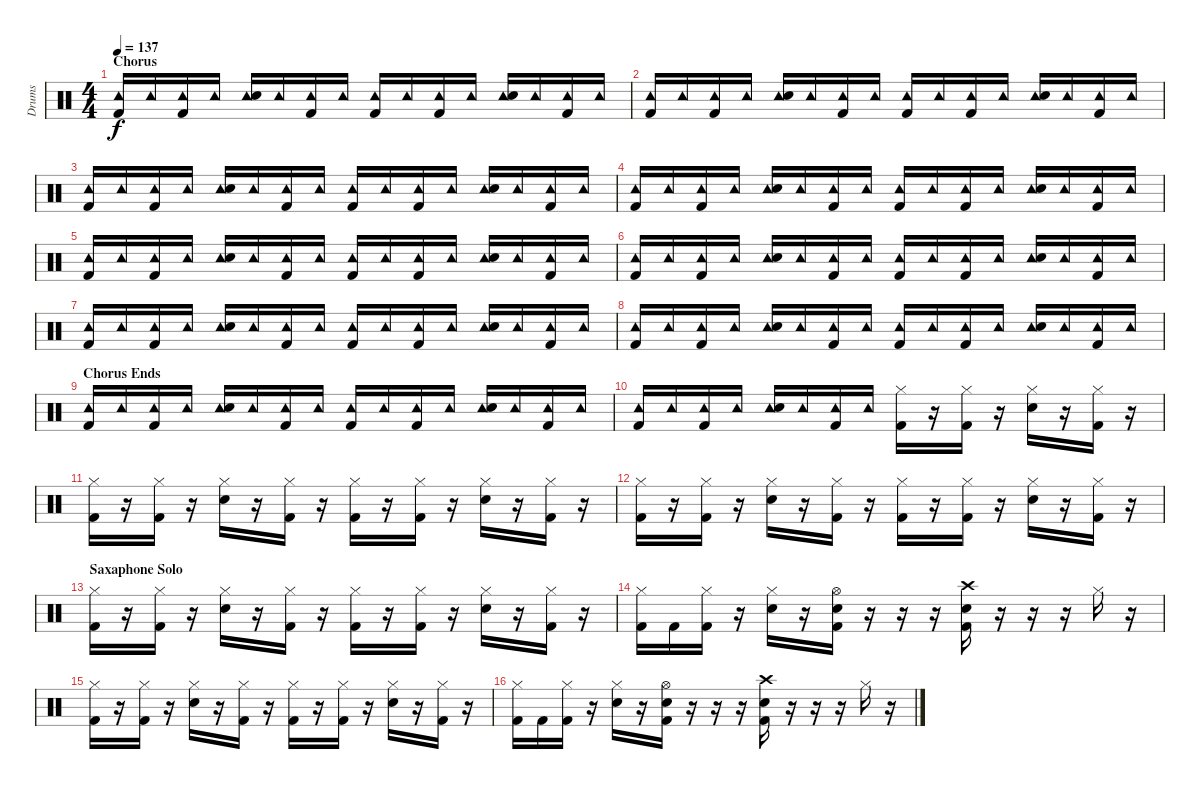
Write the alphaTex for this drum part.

\track ("Drums" "Drums") {instrument percussion}
\staff {score}
\articulation defaults
\ts (4 4)
\section ("" "Chorus")
\tempo 137
\clef neutral
\ks c
("Tambourine (hit)" "Kick (hit) 2").16{dy f} "Tambourine (hit)".16 ("Tambourine (hit)" "Kick (hit) 2").16 "Tambourine (hit)".16 ("Tambourine (hit)" "Electric Snare (hit)").16 "Tambourine (hit)".16 ("Tambourine (hit)" "Kick (hit) 2").16 "Tambourine (hit)".16 ("Tambourine (hit)" "Kick (hit) 2").16 "Tambourine (hit)".16 ("Tambourine (hit)" "Kick (hit) 2").16 "Tambourine (hit)".16 ("Tambourine (hit)" "Electric Snare (hit)").16 "Tambourine (hit)".16 ("Tambourine (hit)" "Kick (hit) 2").16 "Tambourine (hit)".16 |
("Tambourine (hit)" "Kick (hit) 2").16 "Tambourine (hit)".16 ("Tambourine (hit)" "Kick (hit) 2").16 "Tambourine (hit)".16 ("Tambourine (hit)" "Electric Snare (hit)").16 "Tambourine (hit)".16 ("Tambourine (hit)" "Kick (hit) 2").16 "Tambourine (hit)".16 ("Tambourine (hit)" "Kick (hit) 2").16 "Tambourine (hit)".16 ("Tambourine (hit)" "Kick (hit) 2").16 "Tambourine (hit)".16 ("Tambourine (hit)" "Electric Snare (hit)").16 "Tambourine (hit)".16 ("Tambourine (hit)" "Kick (hit) 2").16 "Tambourine (hit)".16 |
("Tambourine (hit)" "Kick (hit) 2").16 "Tambourine (hit)".16 ("Tambourine (hit)" "Kick (hit) 2").16 "Tambourine (hit)".16 ("Tambourine (hit)" "Electric Snare (hit)").16 "Tambourine (hit)".16 ("Tambourine (hit)" "Kick (hit) 2").16 "Tambourine (hit)".16 ("Tambourine (hit)" "Kick (hit) 2").16 "Tambourine (hit)".16 ("Tambourine (hit)" "Kick (hit) 2").16 "Tambourine (hit)".16 ("Tambourine (hit)" "Electric Snare (hit)").16 "Tambourine (hit)".16 ("Tambourine (hit)" "Kick (hit) 2").16 "Tambourine (hit)".16 |
("Tambourine (hit)" "Kick (hit) 2").16 "Tambourine (hit)".16 ("Tambourine (hit)" "Kick (hit) 2").16 "Tambourine (hit)".16 ("Tambourine (hit)" "Electric Snare (hit)").16 "Tambourine (hit)".16 ("Tambourine (hit)" "Kick (hit) 2").16 "Tambourine (hit)".16 ("Tambourine (hit)" "Kick (hit) 2").16 "Tambourine (hit)".16 ("Tambourine (hit)" "Kick (hit) 2").16 "Tambourine (hit)".16 ("Tambourine (hit)" "Electric Snare (hit)").16 "Tambourine (hit)".16 ("Tambourine (hit)" "Kick (hit) 2").16 "Tambourine (hit)".16 |
("Tambourine (hit)" "Kick (hit) 2").16 "Tambourine (hit)".16 ("Tambourine (hit)" "Kick (hit) 2").16 "Tambourine (hit)".16 ("Tambourine (hit)" "Electric Snare (hit)").16 "Tambourine (hit)".16 ("Tambourine (hit)" "Kick (hit) 2").16 "Tambourine (hit)".16 ("Tambourine (hit)" "Kick (hit) 2").16 "Tambourine (hit)".16 ("Tambourine (hit)" "Kick (hit) 2").16 "Tambourine (hit)".16 ("Tambourine (hit)" "Electric Snare (hit)").16 "Tambourine (hit)".16 ("Tambourine (hit)" "Kick (hit) 2").16 "Tambourine (hit)".16 |
("Tambourine (hit)" "Kick (hit) 2").16 "Tambourine (hit)".16 ("Tambourine (hit)" "Kick (hit) 2").16 "Tambourine (hit)".16 ("Tambourine (hit)" "Electric Snare (hit)").16 "Tambourine (hit)".16 ("Tambourine (hit)" "Kick (hit) 2").16 "Tambourine (hit)".16 ("Tambourine (hit)" "Kick (hit) 2").16 "Tambourine (hit)".16 ("Tambourine (hit)" "Kick (hit) 2").16 "Tambourine (hit)".16 ("Tambourine (hit)" "Electric Snare (hit)").16 "Tambourine (hit)".16 ("Tambourine (hit)" "Kick (hit) 2").16 "Tambourine (hit)".16 |
("Tambourine (hit)" "Kick (hit) 2").16 "Tambourine (hit)".16 ("Tambourine (hit)" "Kick (hit) 2").16 "Tambourine (hit)".16 ("Tambourine (hit)" "Electric Snare (hit)").16 "Tambourine (hit)".16 ("Tambourine (hit)" "Kick (hit) 2").16 "Tambourine (hit)".16 ("Tambourine (hit)" "Kick (hit) 2").16 "Tambourine (hit)".16 ("Tambourine (hit)" "Kick (hit) 2").16 "Tambourine (hit)".16 ("Tambourine (hit)" "Electric Snare (hit)").16 "Tambourine (hit)".16 ("Tambourine (hit)" "Kick (hit) 2").16 "Tambourine (hit)".16 |
("Tambourine (hit)" "Kick (hit) 2").16 "Tambourine (hit)".16 ("Tambourine (hit)" "Kick (hit) 2").16 "Tambourine (hit)".16 ("Tambourine (hit)" "Electric Snare (hit)").16 "Tambourine (hit)".16 ("Tambourine (hit)" "Kick (hit) 2").16 "Tambourine (hit)".16 ("Tambourine (hit)" "Kick (hit) 2").16 "Tambourine (hit)".16 ("Tambourine (hit)" "Kick (hit) 2").16 "Tambourine (hit)".16 ("Tambourine (hit)" "Electric Snare (hit)").16 "Tambourine (hit)".16 ("Tambourine (hit)" "Kick (hit) 2").16 "Tambourine (hit)".16 |
\section ("" "Chorus Ends")
("Tambourine (hit)" "Kick (hit) 2").16 "Tambourine (hit)".16 ("Tambourine (hit)" "Kick (hit) 2").16 "Tambourine (hit)".16 ("Tambourine (hit)" "Electric Snare (hit)").16 "Tambourine (hit)".16 ("Tambourine (hit)" "Kick (hit) 2").16 "Tambourine (hit)".16 ("Tambourine (hit)" "Kick (hit) 2").16 "Tambourine (hit)".16 ("Tambourine (hit)" "Kick (hit) 2").16 "Tambourine (hit)".16 ("Tambourine (hit)" "Electric Snare (hit)").16 "Tambourine (hit)".16 ("Tambourine (hit)" "Kick (hit) 2").16 "Tambourine (hit)".16 |
("Tambourine (hit)" "Kick (hit) 2").16 "Tambourine (hit)".16 ("Tambourine (hit)" "Kick (hit) 2").16 "Tambourine (hit)".16 ("Tambourine (hit)" "Electric Snare (hit)").16 "Tambourine (hit)".16 ("Tambourine (hit)" "Kick (hit) 2").16 "Tambourine (hit)".16 ("Hi-Hat (closed)" "Kick (hit) 2").16 r.16 ("Hi-Hat (closed)" "Kick (hit) 2").16 r.16 ("Hi-Hat (closed)" "Electric Snare (hit)").16 r.16 ("Hi-Hat (closed)" "Kick (hit) 2").16 r.16 |
("Hi-Hat (closed)" "Kick (hit) 2").16 r.16 ("Hi-Hat (closed)" "Kick (hit) 2").16 r.16 ("Hi-Hat (closed)" "Electric Snare (hit)").16 r.16 ("Hi-Hat (closed)" "Kick (hit) 2").16 r.16 ("Hi-Hat (closed)" "Kick (hit) 2").16 r.16 ("Hi-Hat (closed)" "Kick (hit) 2").16 r.16 ("Hi-Hat (closed)" "Electric Snare (hit)").16 r.16 ("Hi-Hat (closed)" "Kick (hit) 2").16 r.16 |
("Hi-Hat (closed)" "Kick (hit) 2").16 r.16 ("Hi-Hat (closed)" "Kick (hit) 2").16 r.16 ("Hi-Hat (closed)" "Electric Snare (hit)").16 r.16 ("Hi-Hat (closed)" "Kick (hit) 2").16 r.16 ("Hi-Hat (closed)" "Kick (hit) 2").16 r.16 ("Hi-Hat (closed)" "Kick (hit) 2").16 r.16 ("Hi-Hat (closed)" "Electric Snare (hit)").16 r.16 ("Hi-Hat (closed)" "Kick (hit) 2").16 r.16 |
\section ("" "Saxaphone Solo")
("Hi-Hat (closed)" "Kick (hit) 2").16 r.16 ("Hi-Hat (closed)" "Kick (hit) 2").16 r.16 ("Hi-Hat (closed)" "Electric Snare (hit)").16 r.16 ("Hi-Hat (closed)" "Kick (hit) 2").16 r.16 ("Hi-Hat (closed)" "Kick (hit) 2").16 r.16 ("Hi-Hat (closed)" "Kick (hit) 2").16 r.16 ("Hi-Hat (closed)" "Electric Snare (hit)").16 r.16 ("Hi-Hat (closed)" "Kick (hit) 2").16 r.16 |
("Hi-Hat (closed)" "Kick (hit) 2").16 "Kick (hit) 2".16 ("Hi-Hat (closed)" "Kick (hit) 2").16 r.16 ("Hi-Hat (closed)" "Electric Snare (hit)").16 r.16 ("Hi-Hat (open)" "Electric Snare (hit)" "Kick (hit) 2").16 r.16 r.16 r.16 ("Crash high (hit)" "Electric Snare (hit)" "Kick (hit) 2").16 r.16 r.16 r.16 "Hi-Hat (closed)".16 r.16 |
("Hi-Hat (closed)" "Kick (hit) 2").16 r.16 ("Hi-Hat (closed)" "Kick (hit) 2").16 r.16 ("Hi-Hat (closed)" "Electric Snare (hit)").16 r.16 ("Hi-Hat (closed)" "Kick (hit) 2").16 r.16 ("Hi-Hat (closed)" "Kick (hit) 2").16 r.16 ("Hi-Hat (closed)" "Kick (hit) 2").16 r.16 ("Hi-Hat (closed)" "Electric Snare (hit)").16 r.16 ("Hi-Hat (closed)" "Kick (hit) 2").16 r.16 |
("Hi-Hat (closed)" "Kick (hit) 2").16 "Kick (hit) 2".16 ("Hi-Hat (closed)" "Kick (hit) 2").16 r.16 ("Hi-Hat (closed)" "Electric Snare (hit)").16 r.16 ("Hi-Hat (open)" "Electric Snare (hit)" "Kick (hit) 2").16 r.16 r.16 r.16 ("Crash high (hit)" "Electric Snare (hit)" "Kick (hit) 2").16 r.16 r.16 r.16 "Hi-Hat (closed)".16 r.16
